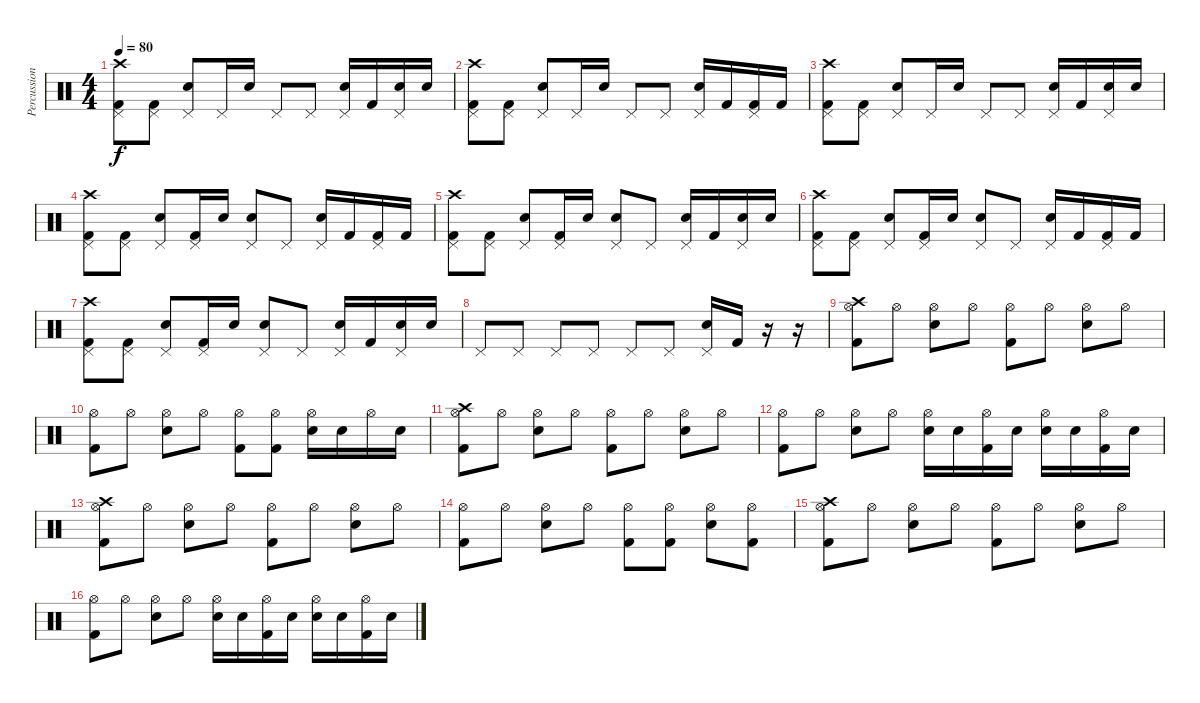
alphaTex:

\track ("Percussion" "Percussion") {instrument percussion}
\staff {score}
\articulation defaults
\ts (4 4)
\tempo 80
\clef neutral
\ks c
("Kick (hit) 2" "Pedal Hi-Hat (hit)" "Crash high (hit)").8{dy f} ("Kick (hit) 2" "Pedal Hi-Hat (hit)").8 ("Snare (hit) 2" "Pedal Hi-Hat (hit)").8 "Pedal Hi-Hat (hit)".16 "Snare (hit) 2".16 "Pedal Hi-Hat (hit)".8 "Pedal Hi-Hat (hit)".8 ("Snare (hit) 2" "Pedal Hi-Hat (hit)").16 "Kick (hit) 2".16 ("Snare (hit) 2" "Pedal Hi-Hat (hit)").16 "Snare (hit) 2".16 |
("Kick (hit) 2" "Pedal Hi-Hat (hit)" "Crash high (hit)").8 ("Kick (hit) 2" "Pedal Hi-Hat (hit)").8 ("Snare (hit) 2" "Pedal Hi-Hat (hit)").8 "Pedal Hi-Hat (hit)".16 "Snare (hit) 2".16 "Pedal Hi-Hat (hit)".8 "Pedal Hi-Hat (hit)".8 ("Snare (hit) 2" "Pedal Hi-Hat (hit)").16 "Kick (hit) 2".16 ("Kick (hit) 2" "Pedal Hi-Hat (hit)").16 "Kick (hit) 2".16 |
("Kick (hit) 2" "Pedal Hi-Hat (hit)" "Crash high (hit)").8 ("Kick (hit) 2" "Pedal Hi-Hat (hit)").8 ("Snare (hit) 2" "Pedal Hi-Hat (hit)").8 "Pedal Hi-Hat (hit)".16 "Snare (hit) 2".16 "Pedal Hi-Hat (hit)".8 "Pedal Hi-Hat (hit)".8 ("Snare (hit) 2" "Pedal Hi-Hat (hit)").16 "Kick (hit) 2".16 ("Snare (hit) 2" "Pedal Hi-Hat (hit)").16 "Snare (hit) 2".16 |
("Kick (hit) 2" "Pedal Hi-Hat (hit)" "Crash high (hit)").8 ("Kick (hit) 2" "Pedal Hi-Hat (hit)").8 ("Snare (hit) 2" "Pedal Hi-Hat (hit)").8 ("Kick (hit) 2" "Pedal Hi-Hat (hit)").16 "Snare (hit) 2".16 ("Snare (hit) 2" "Pedal Hi-Hat (hit)").8 "Pedal Hi-Hat (hit)".8 ("Snare (hit) 2" "Pedal Hi-Hat (hit)").16 "Kick (hit) 2".16 ("Kick (hit) 2" "Pedal Hi-Hat (hit)").16 "Kick (hit) 2".16 |
("Kick (hit) 2" "Pedal Hi-Hat (hit)" "Crash high (hit)").8 ("Kick (hit) 2" "Pedal Hi-Hat (hit)").8 ("Snare (hit) 2" "Pedal Hi-Hat (hit)").8 ("Kick (hit) 2" "Pedal Hi-Hat (hit)").16 "Snare (hit) 2".16 ("Snare (hit) 2" "Pedal Hi-Hat (hit)").8 "Pedal Hi-Hat (hit)".8 ("Snare (hit) 2" "Pedal Hi-Hat (hit)").16 "Kick (hit) 2".16 ("Snare (hit) 2" "Pedal Hi-Hat (hit)").16 "Snare (hit) 2".16 |
("Kick (hit) 2" "Pedal Hi-Hat (hit)" "Crash high (hit)").8 ("Kick (hit) 2" "Pedal Hi-Hat (hit)").8 ("Snare (hit) 2" "Pedal Hi-Hat (hit)").8 ("Kick (hit) 2" "Pedal Hi-Hat (hit)").16 "Snare (hit) 2".16 ("Snare (hit) 2" "Pedal Hi-Hat (hit)").8 "Pedal Hi-Hat (hit)".8 ("Snare (hit) 2" "Pedal Hi-Hat (hit)").16 "Kick (hit) 2".16 ("Kick (hit) 2" "Pedal Hi-Hat (hit)").16 "Kick (hit) 2".16 |
("Kick (hit) 2" "Pedal Hi-Hat (hit)" "Crash high (hit)").8 ("Kick (hit) 2" "Pedal Hi-Hat (hit)").8 ("Snare (hit) 2" "Pedal Hi-Hat (hit)").8 ("Kick (hit) 2" "Pedal Hi-Hat (hit)").16 "Snare (hit) 2".16 ("Snare (hit) 2" "Pedal Hi-Hat (hit)").8 "Pedal Hi-Hat (hit)".8 ("Snare (hit) 2" "Pedal Hi-Hat (hit)").16 "Kick (hit) 2".16 ("Snare (hit) 2" "Pedal Hi-Hat (hit)").16 "Snare (hit) 2".16 |
"Pedal Hi-Hat (hit)".8 "Pedal Hi-Hat (hit)".8 "Pedal Hi-Hat (hit)".8 "Pedal Hi-Hat (hit)".8 "Pedal Hi-Hat (hit)".8 "Pedal Hi-Hat (hit)".8 ("Snare (hit) 2" "Pedal Hi-Hat (hit)").16 "Kick (hit) 2".16 r.16 r.16 |
("Kick (hit) 2" "Hi-Hat (open)" "Crash high (hit)").8 "Hi-Hat (open)".8 ("Snare (hit) 2" "Hi-Hat (open)").8 "Hi-Hat (open)".8 ("Kick (hit) 2" "Hi-Hat (open)").8 "Hi-Hat (open)".8 ("Snare (hit) 2" "Hi-Hat (open)").8 "Hi-Hat (open)".8 |
("Kick (hit) 2" "Hi-Hat (open)").8 "Hi-Hat (open)".8 ("Snare (hit) 2" "Hi-Hat (open)").8 "Hi-Hat (open)".8 ("Kick (hit) 2" "Hi-Hat (open)").8 ("Kick (hit) 2" "Hi-Hat (open)").8 ("Snare (hit) 2" "Hi-Hat (open)").16 "Snare (hit) 2".16 "Hi-Hat (open)".16 "Snare (hit) 2".16 |
("Kick (hit) 2" "Hi-Hat (open)" "Crash high (hit)").8 "Hi-Hat (open)".8 ("Snare (hit) 2" "Hi-Hat (open)").8 "Hi-Hat (open)".8 ("Kick (hit) 2" "Hi-Hat (open)").8 "Hi-Hat (open)".8 ("Snare (hit) 2" "Hi-Hat (open)").8 "Hi-Hat (open)".8 |
("Kick (hit) 2" "Hi-Hat (open)").8 "Hi-Hat (open)".8 ("Snare (hit) 2" "Hi-Hat (open)").8 "Hi-Hat (open)".8 ("Snare (hit) 2" "Hi-Hat (open)").16 "Snare (hit) 2".16 ("Kick (hit) 2" "Hi-Hat (open)").16 "Snare (hit) 2".16 ("Snare (hit) 2" "Hi-Hat (open)").16 "Snare (hit) 2".16 ("Kick (hit) 2" "Hi-Hat (open)").16 "Snare (hit) 2".16 |
("Kick (hit) 2" "Hi-Hat (open)" "Crash high (hit)").8 "Hi-Hat (open)".8 ("Snare (hit) 2" "Hi-Hat (open)").8 "Hi-Hat (open)".8 ("Kick (hit) 2" "Hi-Hat (open)").8 "Hi-Hat (open)".8 ("Snare (hit) 2" "Hi-Hat (open)").8 "Hi-Hat (open)".8 |
("Kick (hit) 2" "Hi-Hat (open)").8 "Hi-Hat (open)".8 ("Snare (hit) 2" "Hi-Hat (open)").8 "Hi-Hat (open)".8 ("Kick (hit) 2" "Hi-Hat (open)").8 ("Kick (hit) 2" "Hi-Hat (open)").8 ("Snare (hit) 2" "Hi-Hat (open)").8 ("Kick (hit) 2" "Hi-Hat (open)").8 |
("Kick (hit) 2" "Hi-Hat (open)" "Crash high (hit)").8 "Hi-Hat (open)".8 ("Snare (hit) 2" "Hi-Hat (open)").8 "Hi-Hat (open)".8 ("Kick (hit) 2" "Hi-Hat (open)").8 "Hi-Hat (open)".8 ("Snare (hit) 2" "Hi-Hat (open)").8 "Hi-Hat (open)".8 |
("Kick (hit) 2" "Hi-Hat (open)").8 "Hi-Hat (open)".8 ("Snare (hit) 2" "Hi-Hat (open)").8 "Hi-Hat (open)".8 ("Snare (hit) 2" "Hi-Hat (open)").16 "Snare (hit) 2".16 ("Kick (hit) 2" "Hi-Hat (open)").16 "Snare (hit) 2".16 ("Snare (hit) 2" "Hi-Hat (open)").16 "Snare (hit) 2".16 ("Kick (hit) 2" "Hi-Hat (open)").16 "Snare (hit) 2".16
